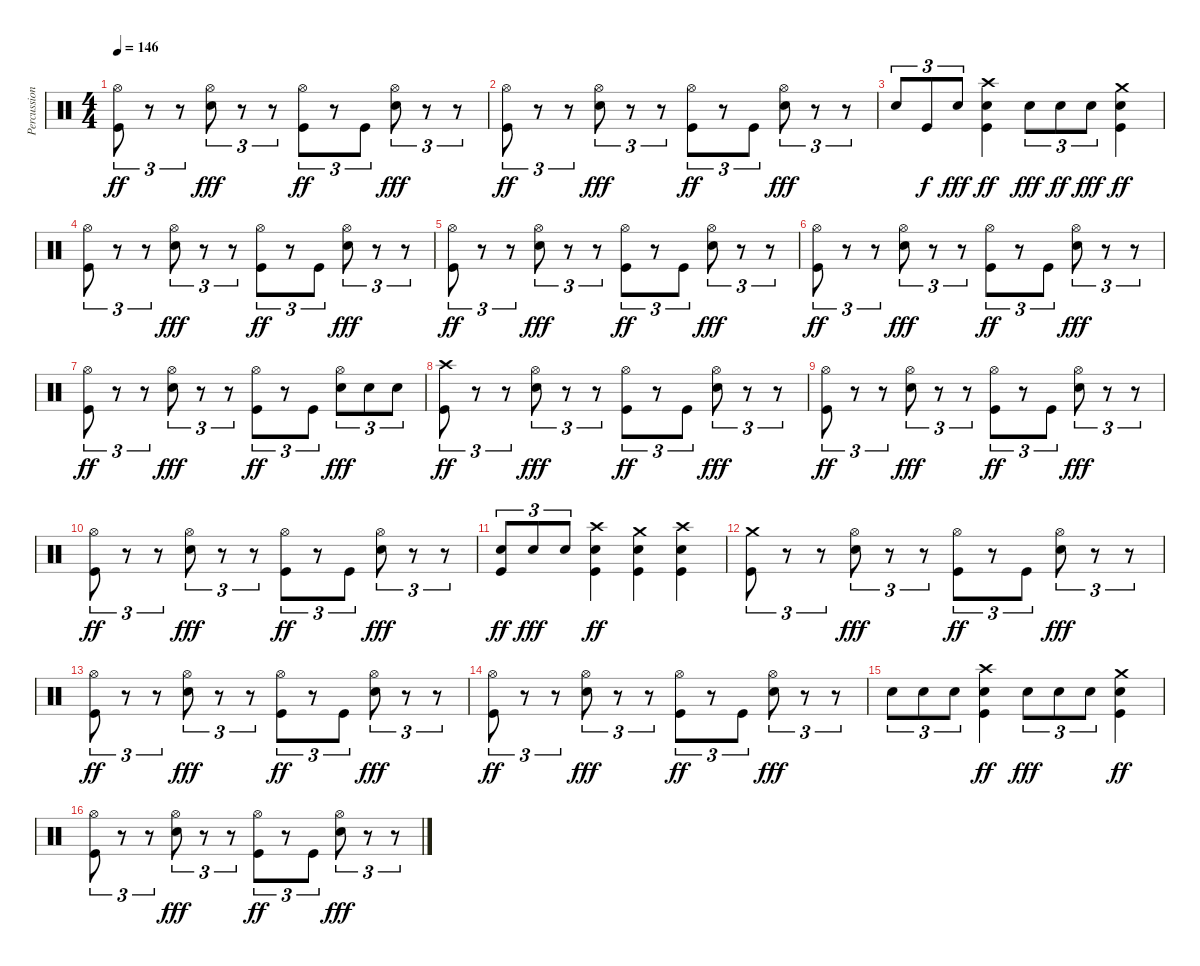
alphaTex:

\track ("Percussion" "Percussion") {instrument percussion}
\staff {score}
\articulation defaults
\ts (4 4)
\tempo 146
\clef neutral
\ks c
("Hi-Hat (open)" "Kick (hit)").8{tu (3 2) dy ff} r.8{tu (3 2)} r.8{tu (3 2)} ("Hi-Hat (open)" "Snare (hit) 2").8{tu (3 2) dy fff} r.8{tu (3 2)} r.8{tu (3 2)} ("Hi-Hat (open)" "Kick (hit)").8{tu (3 2) dy ff} r.8{tu (3 2)} "Kick (hit)".8{tu (3 2)} ("Hi-Hat (open)" "Snare (hit) 2").8{tu (3 2) dy fff} r.8{tu (3 2)} r.8{tu (3 2)} |
("Hi-Hat (open)" "Kick (hit)").8{tu (3 2) dy ff} r.8{tu (3 2)} r.8{tu (3 2)} ("Hi-Hat (open)" "Snare (hit) 2").8{tu (3 2) dy fff} r.8{tu (3 2)} r.8{tu (3 2)} ("Hi-Hat (open)" "Kick (hit)").8{tu (3 2) dy ff} r.8{tu (3 2)} "Kick (hit)".8{tu (3 2)} ("Hi-Hat (open)" "Snare (hit) 2").8{tu (3 2) dy fff} r.8{tu (3 2)} r.8{tu (3 2)} |
"Snare (hit) 2".8{tu (3 2)} "Kick (hit)".8{tu (3 2) dy f} "Snare (hit) 2".8{tu (3 2) dy fff} ("Crash high (hit)" "Snare (hit) 2" "Kick (hit)").4{dy ff} "Snare (hit) 2".8{tu (3 2) dy fff} "Snare (hit) 2".8{tu (3 2) dy ff} "Snare (hit) 2".8{tu (3 2) dy fff} ("Crash medium (hit)" "Snare (hit) 2" "Kick (hit)").4{dy ff} |
("Hi-Hat (open)" "Kick (hit)").8{tu (3 2)} r.8{tu (3 2)} r.8{tu (3 2)} ("Hi-Hat (open)" "Snare (hit) 2").8{tu (3 2) dy fff} r.8{tu (3 2)} r.8{tu (3 2)} ("Hi-Hat (open)" "Kick (hit)").8{tu (3 2) dy ff} r.8{tu (3 2)} "Kick (hit)".8{tu (3 2)} ("Hi-Hat (open)" "Snare (hit) 2").8{tu (3 2) dy fff} r.8{tu (3 2)} r.8{tu (3 2)} |
("Hi-Hat (open)" "Kick (hit)").8{tu (3 2) dy ff} r.8{tu (3 2)} r.8{tu (3 2)} ("Hi-Hat (open)" "Snare (hit) 2").8{tu (3 2) dy fff} r.8{tu (3 2)} r.8{tu (3 2)} ("Hi-Hat (open)" "Kick (hit)").8{tu (3 2) dy ff} r.8{tu (3 2)} "Kick (hit)".8{tu (3 2)} ("Hi-Hat (open)" "Snare (hit) 2").8{tu (3 2) dy fff} r.8{tu (3 2)} r.8{tu (3 2)} |
("Hi-Hat (open)" "Kick (hit)").8{tu (3 2) dy ff} r.8{tu (3 2)} r.8{tu (3 2)} ("Hi-Hat (open)" "Snare (hit) 2").8{tu (3 2) dy fff} r.8{tu (3 2)} r.8{tu (3 2)} ("Hi-Hat (open)" "Kick (hit)").8{tu (3 2) dy ff} r.8{tu (3 2)} "Kick (hit)".8{tu (3 2)} ("Hi-Hat (open)" "Snare (hit) 2").8{tu (3 2) dy fff} r.8{tu (3 2)} r.8{tu (3 2)} |
("Hi-Hat (open)" "Kick (hit)").8{tu (3 2) dy ff} r.8{tu (3 2)} r.8{tu (3 2)} ("Hi-Hat (open)" "Snare (hit) 2").8{tu (3 2) dy fff} r.8{tu (3 2)} r.8{tu (3 2)} ("Hi-Hat (open)" "Kick (hit)").8{tu (3 2) dy ff} r.8{tu (3 2)} "Kick (hit)".8{tu (3 2)} ("Hi-Hat (open)" "Snare (hit) 2").8{tu (3 2) dy fff} "Snare (hit) 2".8{tu (3 2)} "Snare (hit) 2".8{tu (3 2)} |
("Crash high (hit)" "Kick (hit)").8{tu (3 2) dy ff} r.8{tu (3 2)} r.8{tu (3 2)} ("Hi-Hat (open)" "Snare (hit) 2").8{tu (3 2) dy fff} r.8{tu (3 2)} r.8{tu (3 2)} ("Hi-Hat (open)" "Kick (hit)").8{tu (3 2) dy ff} r.8{tu (3 2)} "Kick (hit)".8{tu (3 2)} ("Hi-Hat (open)" "Snare (hit) 2").8{tu (3 2) dy fff} r.8{tu (3 2)} r.8{tu (3 2)} |
("Hi-Hat (open)" "Kick (hit)").8{tu (3 2) dy ff} r.8{tu (3 2)} r.8{tu (3 2)} ("Hi-Hat (open)" "Snare (hit) 2").8{tu (3 2) dy fff} r.8{tu (3 2)} r.8{tu (3 2)} ("Hi-Hat (open)" "Kick (hit)").8{tu (3 2) dy ff} r.8{tu (3 2)} "Kick (hit)".8{tu (3 2)} ("Hi-Hat (open)" "Snare (hit) 2").8{tu (3 2) dy fff} r.8{tu (3 2)} r.8{tu (3 2)} |
("Hi-Hat (open)" "Kick (hit)").8{tu (3 2) dy ff} r.8{tu (3 2)} r.8{tu (3 2)} ("Hi-Hat (open)" "Snare (hit) 2").8{tu (3 2) dy fff} r.8{tu (3 2)} r.8{tu (3 2)} ("Hi-Hat (open)" "Kick (hit)").8{tu (3 2) dy ff} r.8{tu (3 2)} "Kick (hit)".8{tu (3 2)} ("Hi-Hat (open)" "Snare (hit) 2").8{tu (3 2) dy fff} r.8{tu (3 2)} r.8{tu (3 2)} |
("Snare (hit) 2" "Kick (hit)").8{tu (3 2) dy ff} "Snare (hit) 2".8{tu (3 2) dy fff} "Snare (hit) 2".8{tu (3 2)} ("Crash high (hit)" "Snare (hit) 2" "Kick (hit)").4{dy ff} ("Crash medium (hit)" "Snare (hit) 2" "Kick (hit)").4 ("Crash high (hit)" "Snare (hit) 2" "Kick (hit)").4 |
("Crash medium (hit)" "Kick (hit)").8{tu (3 2)} r.8{tu (3 2)} r.8{tu (3 2)} ("Hi-Hat (open)" "Snare (hit) 2").8{tu (3 2) dy fff} r.8{tu (3 2)} r.8{tu (3 2)} ("Hi-Hat (open)" "Kick (hit)").8{tu (3 2) dy ff} r.8{tu (3 2)} "Kick (hit)".8{tu (3 2)} ("Hi-Hat (open)" "Snare (hit) 2").8{tu (3 2) dy fff} r.8{tu (3 2)} r.8{tu (3 2)} |
("Hi-Hat (open)" "Kick (hit)").8{tu (3 2) dy ff} r.8{tu (3 2)} r.8{tu (3 2)} ("Hi-Hat (open)" "Snare (hit) 2").8{tu (3 2) dy fff} r.8{tu (3 2)} r.8{tu (3 2)} ("Hi-Hat (open)" "Kick (hit)").8{tu (3 2) dy ff} r.8{tu (3 2)} "Kick (hit)".8{tu (3 2)} ("Hi-Hat (open)" "Snare (hit) 2").8{tu (3 2) dy fff} r.8{tu (3 2)} r.8{tu (3 2)} |
("Hi-Hat (open)" "Kick (hit)").8{tu (3 2) dy ff} r.8{tu (3 2)} r.8{tu (3 2)} ("Hi-Hat (open)" "Snare (hit) 2").8{tu (3 2) dy fff} r.8{tu (3 2)} r.8{tu (3 2)} ("Hi-Hat (open)" "Kick (hit)").8{tu (3 2) dy ff} r.8{tu (3 2)} "Kick (hit)".8{tu (3 2)} ("Hi-Hat (open)" "Snare (hit) 2").8{tu (3 2) dy fff} r.8{tu (3 2)} r.8{tu (3 2)} |
"Snare (hit) 2".8{tu (3 2)} "Snare (hit) 2".8{tu (3 2)} "Snare (hit) 2".8{tu (3 2)} ("Crash high (hit)" "Snare (hit) 2" "Kick (hit)").4{dy ff} "Snare (hit) 2".8{tu (3 2) dy fff} "Snare (hit) 2".8{tu (3 2)} "Snare (hit) 2".8{tu (3 2)} ("Crash medium (hit)" "Snare (hit) 2" "Kick (hit)").4{dy ff} |
("Hi-Hat (open)" "Kick (hit)").8{tu (3 2)} r.8{tu (3 2)} r.8{tu (3 2)} ("Hi-Hat (open)" "Snare (hit) 2").8{tu (3 2) dy fff} r.8{tu (3 2)} r.8{tu (3 2)} ("Hi-Hat (open)" "Kick (hit)").8{tu (3 2) dy ff} r.8{tu (3 2)} "Kick (hit)".8{tu (3 2)} ("Hi-Hat (open)" "Snare (hit) 2").8{tu (3 2) dy fff} r.8{tu (3 2)} r.8{tu (3 2)}
